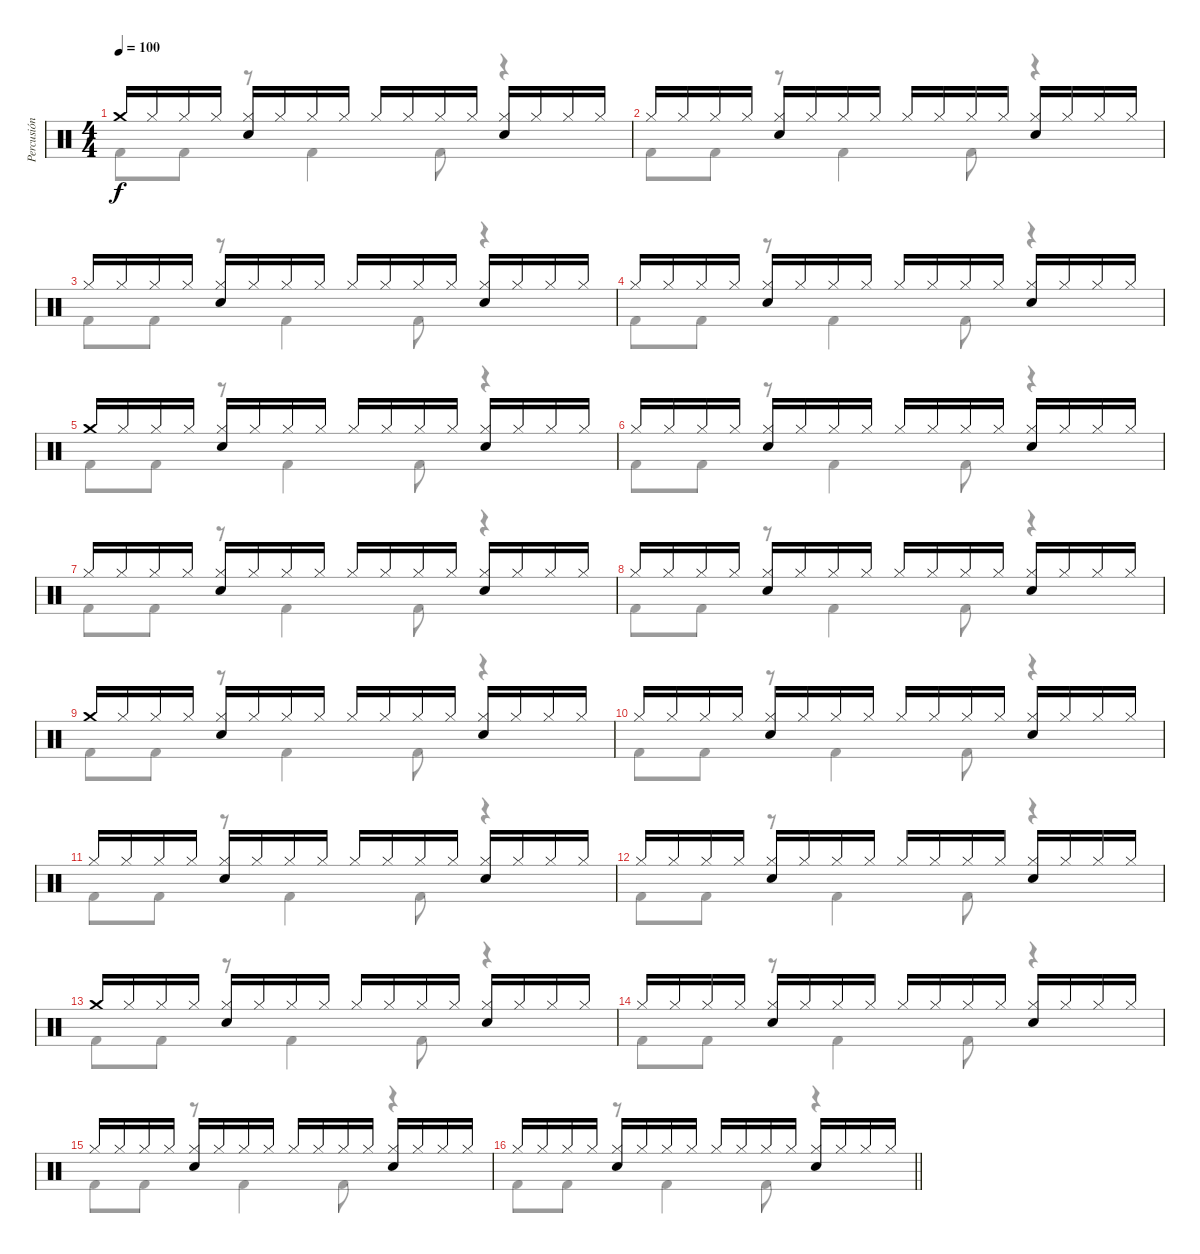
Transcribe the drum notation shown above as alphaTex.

\track ("Percusión" "Percusión") {instrument percussion}
\staff {score}
\articulation defaults
\voice
\ts (4 4)
\tempo 100
\clef neutral
\ks c "Crash medium (hit)".16{dy f} "Hi-Hat (closed)".16 "Hi-Hat (closed)".16 "Hi-Hat (closed)".16
("Hi-Hat (closed)" "Snare (hit) 2").16 "Hi-Hat (closed)".16 "Hi-Hat (closed)".16 "Hi-Hat (closed)".16 "Hi-Hat (closed)".16 "Hi-Hat (closed)".16 "Hi-Hat (closed)".16 "Hi-Hat (closed)".16 ("Hi-Hat (closed)" "Snare (hit) 2").16 "Hi-Hat (closed)".16 "Hi-Hat (closed)".16 "Hi-Hat (closed)".16 |
"Hi-Hat (closed)".16 "Hi-Hat (closed)".16 "Hi-Hat (closed)".16 "Hi-Hat (closed)".16 ("Hi-Hat (closed)" "Snare (hit) 2").16 "Hi-Hat (closed)".16 "Hi-Hat (closed)".16 "Hi-Hat (closed)".16 "Hi-Hat (closed)".16 "Hi-Hat (closed)".16 "Hi-Hat (closed)".16 "Hi-Hat (closed)".16 ("Hi-Hat (closed)" "Snare (hit) 2").16 "Hi-Hat (closed)".16 "Hi-Hat (closed)".16 "Hi-Hat (closed)".16 |
"Hi-Hat (closed)".16 "Hi-Hat (closed)".16 "Hi-Hat (closed)".16 "Hi-Hat (closed)".16 ("Hi-Hat (closed)" "Snare (hit) 2").16 "Hi-Hat (closed)".16 "Hi-Hat (closed)".16 "Hi-Hat (closed)".16 "Hi-Hat (closed)".16 "Hi-Hat (closed)".16 "Hi-Hat (closed)".16 "Hi-Hat (closed)".16 ("Hi-Hat (closed)" "Snare (hit) 2").16 "Hi-Hat (closed)".16 "Hi-Hat (closed)".16 "Hi-Hat (closed)".16 |
"Hi-Hat (closed)".16 "Hi-Hat (closed)".16 "Hi-Hat (closed)".16 "Hi-Hat (closed)".16 ("Hi-Hat (closed)" "Snare (hit) 2").16 "Hi-Hat (closed)".16 "Hi-Hat (closed)".16 "Hi-Hat (closed)".16 "Hi-Hat (closed)".16 "Hi-Hat (closed)".16 "Hi-Hat (closed)".16 "Hi-Hat (closed)".16 ("Hi-Hat (closed)" "Snare (hit) 2").16 "Hi-Hat (closed)".16 "Hi-Hat (closed)".16 "Hi-Hat (closed)".16 |
"Crash medium (hit)".16 "Hi-Hat (closed)".16 "Hi-Hat (closed)".16 "Hi-Hat (closed)".16 ("Hi-Hat (closed)" "Snare (hit) 2").16 "Hi-Hat (closed)".16 "Hi-Hat (closed)".16 "Hi-Hat (closed)".16 "Hi-Hat (closed)".16 "Hi-Hat (closed)".16 "Hi-Hat (closed)".16 "Hi-Hat (closed)".16 ("Hi-Hat (closed)" "Snare (hit) 2").16 "Hi-Hat (closed)".16 "Hi-Hat (closed)".16 "Hi-Hat (closed)".16 |
"Hi-Hat (closed)".16 "Hi-Hat (closed)".16 "Hi-Hat (closed)".16 "Hi-Hat (closed)".16 ("Hi-Hat (closed)" "Snare (hit) 2").16 "Hi-Hat (closed)".16 "Hi-Hat (closed)".16 "Hi-Hat (closed)".16 "Hi-Hat (closed)".16 "Hi-Hat (closed)".16 "Hi-Hat (closed)".16 "Hi-Hat (closed)".16 ("Hi-Hat (closed)" "Snare (hit) 2").16 "Hi-Hat (closed)".16 "Hi-Hat (closed)".16 "Hi-Hat (closed)".16 |
"Hi-Hat (closed)".16 "Hi-Hat (closed)".16 "Hi-Hat (closed)".16 "Hi-Hat (closed)".16 ("Hi-Hat (closed)" "Snare (hit) 2").16 "Hi-Hat (closed)".16 "Hi-Hat (closed)".16 "Hi-Hat (closed)".16 "Hi-Hat (closed)".16 "Hi-Hat (closed)".16 "Hi-Hat (closed)".16 "Hi-Hat (closed)".16 ("Hi-Hat (closed)" "Snare (hit) 2").16 "Hi-Hat (closed)".16 "Hi-Hat (closed)".16 "Hi-Hat (closed)".16 |
"Hi-Hat (closed)".16 "Hi-Hat (closed)".16 "Hi-Hat (closed)".16 "Hi-Hat (closed)".16 ("Hi-Hat (closed)" "Snare (hit) 2").16 "Hi-Hat (closed)".16 "Hi-Hat (closed)".16 "Hi-Hat (closed)".16 "Hi-Hat (closed)".16 "Hi-Hat (closed)".16 "Hi-Hat (closed)".16 "Hi-Hat (closed)".16 ("Hi-Hat (closed)" "Snare (hit) 2").16 "Hi-Hat (closed)".16 "Hi-Hat (closed)".16 "Hi-Hat (closed)".16 |
"Crash medium (hit)".16 "Hi-Hat (closed)".16 "Hi-Hat (closed)".16 "Hi-Hat (closed)".16 ("Hi-Hat (closed)" "Snare (hit) 2").16 "Hi-Hat (closed)".16 "Hi-Hat (closed)".16 "Hi-Hat (closed)".16 "Hi-Hat (closed)".16 "Hi-Hat (closed)".16 "Hi-Hat (closed)".16 "Hi-Hat (closed)".16 ("Hi-Hat (closed)" "Snare (hit) 2").16 "Hi-Hat (closed)".16 "Hi-Hat (closed)".16 "Hi-Hat (closed)".16 |
"Hi-Hat (closed)".16 "Hi-Hat (closed)".16 "Hi-Hat (closed)".16 "Hi-Hat (closed)".16 ("Hi-Hat (closed)" "Snare (hit) 2").16 "Hi-Hat (closed)".16 "Hi-Hat (closed)".16 "Hi-Hat (closed)".16 "Hi-Hat (closed)".16 "Hi-Hat (closed)".16 "Hi-Hat (closed)".16 "Hi-Hat (closed)".16 ("Hi-Hat (closed)" "Snare (hit) 2").16 "Hi-Hat (closed)".16 "Hi-Hat (closed)".16 "Hi-Hat (closed)".16 |
"Hi-Hat (closed)".16 "Hi-Hat (closed)".16 "Hi-Hat (closed)".16 "Hi-Hat (closed)".16 ("Hi-Hat (closed)" "Snare (hit) 2").16 "Hi-Hat (closed)".16 "Hi-Hat (closed)".16 "Hi-Hat (closed)".16 "Hi-Hat (closed)".16 "Hi-Hat (closed)".16 "Hi-Hat (closed)".16 "Hi-Hat (closed)".16 ("Hi-Hat (closed)" "Snare (hit) 2").16 "Hi-Hat (closed)".16 "Hi-Hat (closed)".16 "Hi-Hat (closed)".16 |
"Hi-Hat (closed)".16 "Hi-Hat (closed)".16 "Hi-Hat (closed)".16 "Hi-Hat (closed)".16 ("Hi-Hat (closed)" "Snare (hit) 2").16 "Hi-Hat (closed)".16 "Hi-Hat (closed)".16 "Hi-Hat (closed)".16 "Hi-Hat (closed)".16 "Hi-Hat (closed)".16 "Hi-Hat (closed)".16 "Hi-Hat (closed)".16 ("Hi-Hat (closed)" "Snare (hit) 2").16 "Hi-Hat (closed)".16 "Hi-Hat (closed)".16 "Hi-Hat (closed)".16 |
"Crash medium (hit)".16 "Hi-Hat (closed)".16 "Hi-Hat (closed)".16 "Hi-Hat (closed)".16 ("Hi-Hat (closed)" "Snare (hit) 2").16 "Hi-Hat (closed)".16 "Hi-Hat (closed)".16 "Hi-Hat (closed)".16 "Hi-Hat (closed)".16 "Hi-Hat (closed)".16 "Hi-Hat (closed)".16 "Hi-Hat (closed)".16 ("Hi-Hat (closed)" "Snare (hit) 2").16 "Hi-Hat (closed)".16 "Hi-Hat (closed)".16 "Hi-Hat (closed)".16 |
"Hi-Hat (closed)".16 "Hi-Hat (closed)".16 "Hi-Hat (closed)".16 "Hi-Hat (closed)".16 ("Hi-Hat (closed)" "Snare (hit) 2").16 "Hi-Hat (closed)".16 "Hi-Hat (closed)".16 "Hi-Hat (closed)".16 "Hi-Hat (closed)".16 "Hi-Hat (closed)".16 "Hi-Hat (closed)".16 "Hi-Hat (closed)".16 ("Hi-Hat (closed)" "Snare (hit) 2").16 "Hi-Hat (closed)".16 "Hi-Hat (closed)".16 "Hi-Hat (closed)".16 |
"Hi-Hat (closed)".16 "Hi-Hat (closed)".16 "Hi-Hat (closed)".16 "Hi-Hat (closed)".16 ("Hi-Hat (closed)" "Snare (hit) 2").16 "Hi-Hat (closed)".16 "Hi-Hat (closed)".16 "Hi-Hat (closed)".16 "Hi-Hat (closed)".16 "Hi-Hat (closed)".16 "Hi-Hat (closed)".16 "Hi-Hat (closed)".16 ("Hi-Hat (closed)" "Snare (hit) 2").16 "Hi-Hat (closed)".16 "Hi-Hat (closed)".16 "Hi-Hat (closed)".16 |
\barLineRight lightlight "Hi-Hat (closed)".16 "Hi-Hat (closed)".16 "Hi-Hat (closed)".16 "Hi-Hat (closed)".16
("Hi-Hat (closed)" "Snare (hit) 2").16 "Hi-Hat (closed)".16 "Hi-Hat (closed)".16 "Hi-Hat (closed)".16 "Hi-Hat (closed)".16 "Hi-Hat (closed)".16 "Hi-Hat (closed)".16 "Hi-Hat (closed)".16 ("Hi-Hat (closed)" "Snare (hit) 2").16 "Hi-Hat (closed)".16 "Hi-Hat (closed)".16 "Hi-Hat (closed)".16
\voice
\clef neutral
\ottava regular
\simile none
\ks c "Kick (hit) 2".8{dy f} "Kick (hit) 2".8
r.8 "Kick (hit) 2".4 "Kick (hit) 2".8 r.4 |
"Kick (hit) 2".8 "Kick (hit) 2".8 r.8 "Kick (hit) 2".4 "Kick (hit) 2".8 r.4 |
"Kick (hit) 2".8 "Kick (hit) 2".8 r.8 "Kick (hit) 2".4 "Kick (hit) 2".8 r.4 |
"Kick (hit) 2".8 "Kick (hit) 2".8 r.8 "Kick (hit) 2".4 "Kick (hit) 2".8 r.4 |
"Kick (hit) 2".8 "Kick (hit) 2".8 r.8 "Kick (hit) 2".4 "Kick (hit) 2".8 r.4 |
"Kick (hit) 2".8 "Kick (hit) 2".8 r.8 "Kick (hit) 2".4 "Kick (hit) 2".8 r.4 |
"Kick (hit) 2".8 "Kick (hit) 2".8 r.8 "Kick (hit) 2".4 "Kick (hit) 2".8 r.4 |
"Kick (hit) 2".8 "Kick (hit) 2".8 r.8 "Kick (hit) 2".4 "Kick (hit) 2".8 r.4 |
"Kick (hit) 2".8 "Kick (hit) 2".8 r.8 "Kick (hit) 2".4 "Kick (hit) 2".8 r.4 |
"Kick (hit) 2".8 "Kick (hit) 2".8 r.8 "Kick (hit) 2".4 "Kick (hit) 2".8 r.4 |
"Kick (hit) 2".8 "Kick (hit) 2".8 r.8 "Kick (hit) 2".4 "Kick (hit) 2".8 r.4 |
"Kick (hit) 2".8 "Kick (hit) 2".8 r.8 "Kick (hit) 2".4 "Kick (hit) 2".8 r.4 |
"Kick (hit) 2".8 "Kick (hit) 2".8 r.8 "Kick (hit) 2".4 "Kick (hit) 2".8 r.4 |
"Kick (hit) 2".8 "Kick (hit) 2".8 r.8 "Kick (hit) 2".4 "Kick (hit) 2".8 r.4 |
"Kick (hit) 2".8 "Kick (hit) 2".8 r.8 "Kick (hit) 2".4 "Kick (hit) 2".8 r.4 |
\barLineRight lightlight "Kick (hit) 2".8 "Kick (hit) 2".8
r.8 "Kick (hit) 2".4 "Kick (hit) 2".8 r.4
